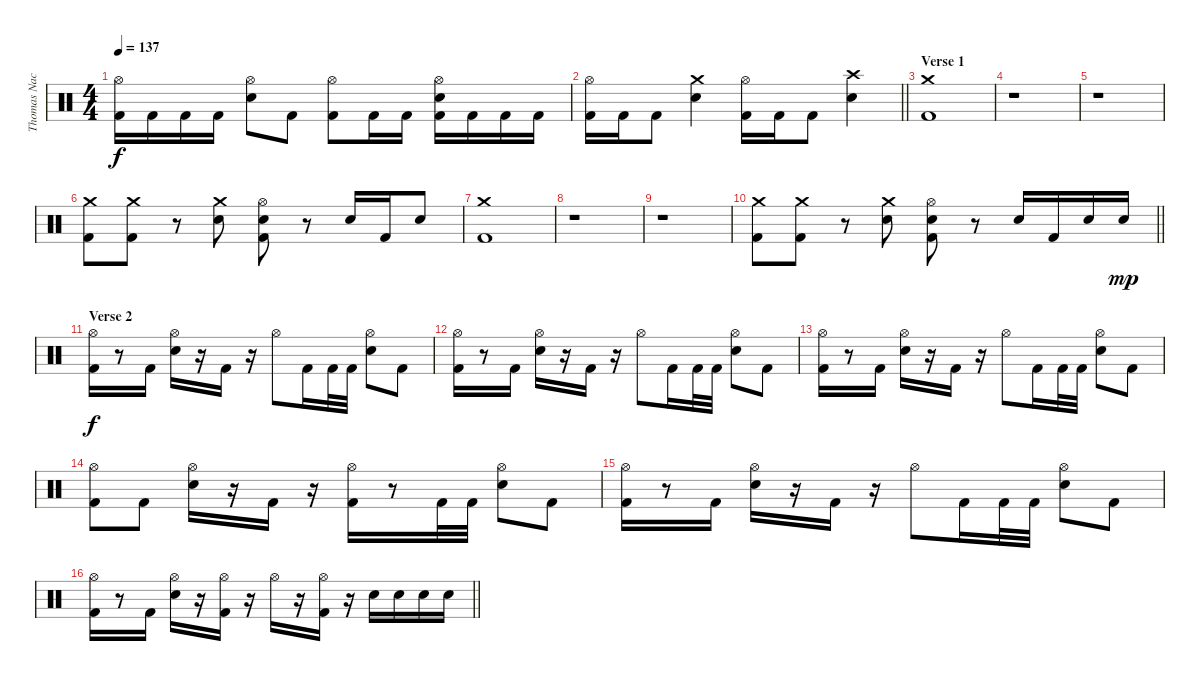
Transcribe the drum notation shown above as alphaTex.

\track ("Thomas Nack" "Thomas Nac") {instrument percussion}
\staff {score}
\articulation defaults
\ts (4 4)
\tempo 137
\clef neutral
\ks c
("Hi-Hat (open)" "Kick (hit) 2").16{dy f} "Kick (hit) 2".16 "Kick (hit) 2".16 "Kick (hit) 2".16 ("Hi-Hat (open)" "Electric Snare (hit)").8 "Kick (hit) 2".8 ("Hi-Hat (open)" "Kick (hit) 2").8 "Kick (hit) 2".16 "Kick (hit) 2".16 ("Hi-Hat (open)" "Electric Snare (hit)" "Kick (hit) 2").16 "Kick (hit) 2".16 "Kick (hit) 2".16 "Kick (hit) 2".16 |
\barLineRight lightlight
("Hi-Hat (open)" "Kick (hit) 2").16 "Kick (hit) 2".16 "Kick (hit) 2".8 ("Crash medium (hit)" "Electric Snare (hit)").4 ("Hi-Hat (open)" "Kick (hit) 2").16 "Kick (hit) 2".16 "Kick (hit) 2".8 ("Crash high (hit)" "Electric Snare (hit)").4 |
\section ("" "Verse 1")
("Crash medium (hit)" "Kick (hit) 2").1 |
r.1 |
r.1 |
("Crash medium (hit)" "Kick (hit) 2").8 ("Crash medium (hit)" "Kick (hit) 2").8 r.8 ("Crash medium (hit)" "Electric Snare (hit)").8 ("Hi-Hat (open)" "Electric Snare (hit)" "Kick (hit) 2").8 r.8 "Electric Snare (hit)".16 "Kick (hit) 2".16 "Electric Snare (hit)".8 |
("Crash medium (hit)" "Kick (hit) 2").1 |
r.1 |
r.1 |
\barLineRight lightlight
("Crash medium (hit)" "Kick (hit) 2").8 ("Crash medium (hit)" "Kick (hit) 2").8 r.8 ("Crash medium (hit)" "Electric Snare (hit)").8 ("Hi-Hat (open)" "Electric Snare (hit)" "Kick (hit) 2").8 r.8 "Electric Snare (hit)".16 "Kick (hit) 2".16 "Electric Snare (hit)".16 "Electric Snare (hit)".16{dy mp} |
\section ("" "Verse 2")
("Hi-Hat (open)" "Kick (hit) 2").16{dy f} r.8 "Kick (hit) 2".16 ("Hi-Hat (open)" "Electric Snare (hit)").16 r.16 "Kick (hit) 2".16 r.16 "Hi-Hat (open)".8 "Kick (hit) 2".16 "Kick (hit) 2".32 "Kick (hit) 2".32 ("Hi-Hat (open)" "Electric Snare (hit)").8 "Kick (hit) 2".8 |
("Hi-Hat (open)" "Kick (hit) 2").16 r.8 "Kick (hit) 2".16 ("Hi-Hat (open)" "Electric Snare (hit)").16 r.16 "Kick (hit) 2".16 r.16 "Hi-Hat (open)".8 "Kick (hit) 2".16 "Kick (hit) 2".32 "Kick (hit) 2".32 ("Hi-Hat (open)" "Electric Snare (hit)").8 "Kick (hit) 2".8 |
("Hi-Hat (open)" "Kick (hit) 2").16 r.8 "Kick (hit) 2".16 ("Hi-Hat (open)" "Electric Snare (hit)").16 r.16 "Kick (hit) 2".16 r.16 "Hi-Hat (open)".8 "Kick (hit) 2".16 "Kick (hit) 2".32 "Kick (hit) 2".32 ("Hi-Hat (open)" "Electric Snare (hit)").8 "Kick (hit) 2".8 |
("Hi-Hat (open)" "Kick (hit) 2").8 "Kick (hit) 2".8 ("Hi-Hat (open)" "Electric Snare (hit)").16 r.16 "Kick (hit) 2".16 r.16 ("Hi-Hat (open)" "Kick (hit) 2").16 r.8 "Kick (hit) 2".32 "Kick (hit) 2".32 ("Hi-Hat (open)" "Electric Snare (hit)").8 "Kick (hit) 2".8 |
("Hi-Hat (open)" "Kick (hit) 2").16 r.8 "Kick (hit) 2".16 ("Hi-Hat (open)" "Electric Snare (hit)").16 r.16 "Kick (hit) 2".16 r.16 "Hi-Hat (open)".8 "Kick (hit) 2".16 "Kick (hit) 2".32 "Kick (hit) 2".32 ("Hi-Hat (open)" "Electric Snare (hit)").8 "Kick (hit) 2".8 |
\barLineRight lightlight
("Hi-Hat (open)" "Kick (hit) 2").16 r.8 "Kick (hit) 2".16 ("Hi-Hat (open)" "Electric Snare (hit)").16 r.16 ("Hi-Hat (open)" "Kick (hit) 2").16 r.16 "Hi-Hat (open)".16 r.16 ("Hi-Hat (open)" "Kick (hit) 2").16 r.16 "Electric Snare (hit)".16 "Electric Snare (hit)".16 "Electric Snare (hit)".16 "Electric Snare (hit)".16
